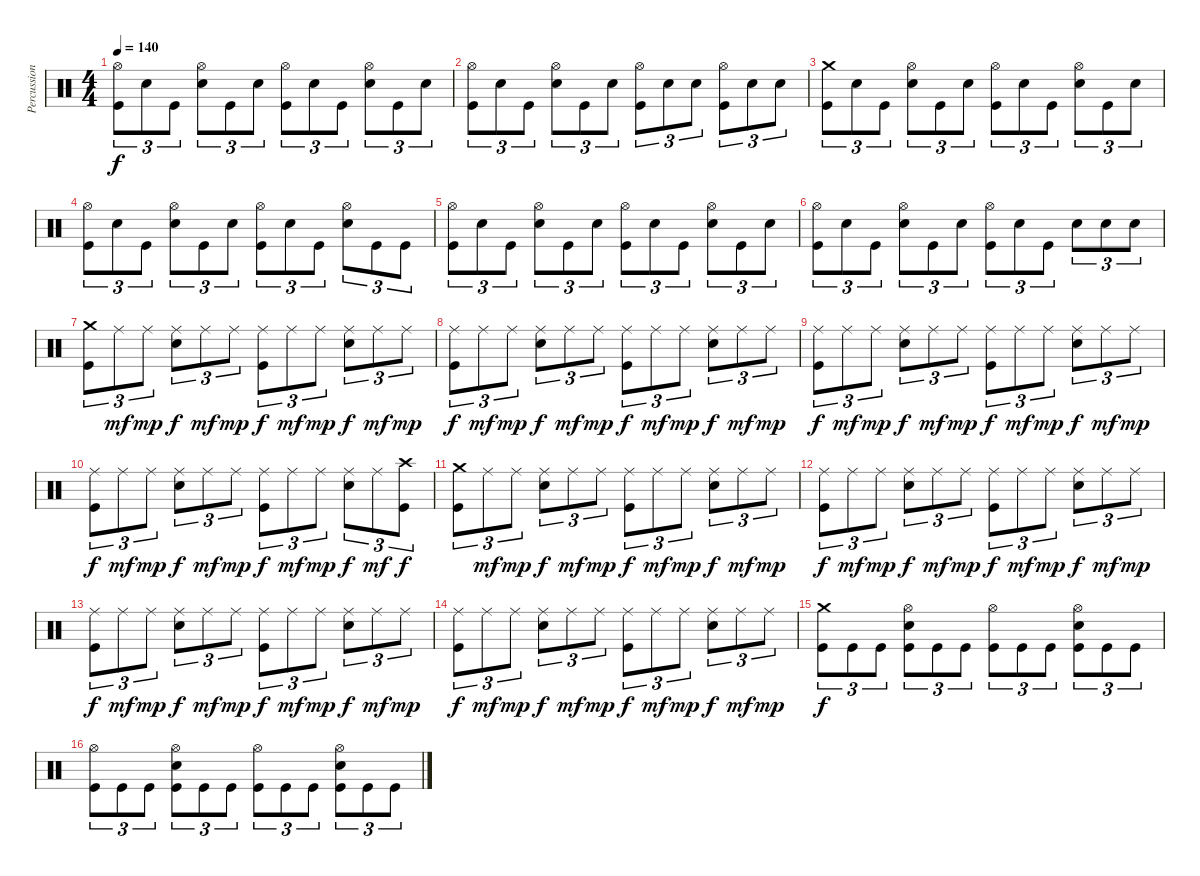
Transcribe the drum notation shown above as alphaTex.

\track ("Percussions" "Percussion") {instrument percussion}
\staff {score}
\articulation defaults
\ts (4 4)
\tempo 140
\clef neutral
\ks c
("Hi-Hat (open)" "Kick (hit)").8{tu (3 2) dy f} "Snare (hit)".8{tu (3 2)} "Kick (hit)".8{tu (3 2)} ("Hi-Hat (open)" "Electric Snare (hit)").8{tu (3 2)} "Kick (hit)".8{tu (3 2)} "Snare (hit)".8{tu (3 2)} ("Hi-Hat (open)" "Kick (hit)").8{tu (3 2)} "Snare (hit)".8{tu (3 2)} "Kick (hit)".8{tu (3 2)} ("Hi-Hat (open)" "Electric Snare (hit)").8{tu (3 2)} "Kick (hit)".8{tu (3 2)} "Snare (hit)".8{tu (3 2)} |
("Hi-Hat (open)" "Kick (hit)").8{tu (3 2)} "Snare (hit)".8{tu (3 2)} "Kick (hit)".8{tu (3 2)} ("Hi-Hat (open)" "Electric Snare (hit)").8{tu (3 2)} "Kick (hit)".8{tu (3 2)} "Snare (hit)".8{tu (3 2)} ("Hi-Hat (open)" "Kick (hit)").8{tu (3 2)} "Electric Snare (hit)".8{tu (3 2)} "Electric Snare (hit)".8{tu (3 2)} ("Hi-Hat (open)" "Kick (hit)").8{tu (3 2)} "Electric Snare (hit)".8{tu (3 2)} "Electric Snare (hit)".8{tu (3 2)} |
("Crash medium (hit)" "Kick (hit)").8{tu (3 2)} "Snare (hit)".8{tu (3 2)} "Kick (hit)".8{tu (3 2)} ("Hi-Hat (open)" "Electric Snare (hit)").8{tu (3 2)} "Kick (hit)".8{tu (3 2)} "Snare (hit)".8{tu (3 2)} ("Hi-Hat (open)" "Kick (hit)").8{tu (3 2)} "Snare (hit)".8{tu (3 2)} "Kick (hit)".8{tu (3 2)} ("Hi-Hat (open)" "Electric Snare (hit)").8{tu (3 2)} "Kick (hit)".8{tu (3 2)} "Snare (hit)".8{tu (3 2)} |
("Hi-Hat (open)" "Kick (hit)").8{tu (3 2)} "Snare (hit)".8{tu (3 2)} "Kick (hit)".8{tu (3 2)} ("Hi-Hat (open)" "Electric Snare (hit)").8{tu (3 2)} "Kick (hit)".8{tu (3 2)} "Snare (hit)".8{tu (3 2)} ("Hi-Hat (open)" "Kick (hit)").8{tu (3 2)} "Snare (hit)".8{tu (3 2)} "Kick (hit)".8{tu (3 2)} ("Hi-Hat (open)" "Electric Snare (hit)").8{tu (3 2)} "Kick (hit)".8{tu (3 2)} "Kick (hit)".8{tu (3 2)} |
("Hi-Hat (open)" "Kick (hit)").8{tu (3 2)} "Snare (hit)".8{tu (3 2)} "Kick (hit)".8{tu (3 2)} ("Hi-Hat (open)" "Electric Snare (hit)").8{tu (3 2)} "Kick (hit)".8{tu (3 2)} "Snare (hit)".8{tu (3 2)} ("Hi-Hat (open)" "Kick (hit)").8{tu (3 2)} "Snare (hit)".8{tu (3 2)} "Kick (hit)".8{tu (3 2)} ("Hi-Hat (open)" "Electric Snare (hit)").8{tu (3 2)} "Kick (hit)".8{tu (3 2)} "Snare (hit)".8{tu (3 2)} |
("Hi-Hat (open)" "Kick (hit)").8{tu (3 2)} "Snare (hit)".8{tu (3 2)} "Kick (hit)".8{tu (3 2)} ("Hi-Hat (open)" "Electric Snare (hit)").8{tu (3 2)} "Kick (hit)".8{tu (3 2)} "Snare (hit)".8{tu (3 2)} ("Hi-Hat (open)" "Kick (hit)").8{tu (3 2)} "Snare (hit)".8{tu (3 2)} "Kick (hit)".8{tu (3 2)} "Electric Snare (hit)".8{tu (3 2)} "Electric Snare (hit)".8{tu (3 2)} "Electric Snare (hit)".8{tu (3 2)} |
("Crash medium (hit)" "Kick (hit)").8{tu (3 2)} "Ride (middle)".8{tu (3 2) dy mf} "Ride (middle)".8{tu (3 2) dy mp} ("Ride (middle)" "Electric Snare (hit)").8{tu (3 2) dy f} "Ride (middle)".8{tu (3 2) dy mf} "Ride (middle)".8{tu (3 2) dy mp} ("Ride (middle)" "Kick (hit)").8{tu (3 2) dy f} "Ride (middle)".8{tu (3 2) dy mf} "Ride (middle)".8{tu (3 2) dy mp} ("Ride (middle)" "Electric Snare (hit)").8{tu (3 2) dy f} "Ride (middle)".8{tu (3 2) dy mf} "Ride (middle)".8{tu (3 2) dy mp} |
("Ride (middle)" "Kick (hit)").8{tu (3 2) dy f} "Ride (middle)".8{tu (3 2) dy mf} "Ride (middle)".8{tu (3 2) dy mp} ("Ride (middle)" "Electric Snare (hit)").8{tu (3 2) dy f} "Ride (middle)".8{tu (3 2) dy mf} "Ride (middle)".8{tu (3 2) dy mp} ("Ride (middle)" "Kick (hit)").8{tu (3 2) dy f} "Ride (middle)".8{tu (3 2) dy mf} "Ride (middle)".8{tu (3 2) dy mp} ("Ride (middle)" "Electric Snare (hit)").8{tu (3 2) dy f} "Ride (middle)".8{tu (3 2) dy mf} "Ride (middle)".8{tu (3 2) dy mp} |
("Ride (middle)" "Kick (hit)").8{tu (3 2) dy f} "Ride (middle)".8{tu (3 2) dy mf} "Ride (middle)".8{tu (3 2) dy mp} ("Ride (middle)" "Electric Snare (hit)").8{tu (3 2) dy f} "Ride (middle)".8{tu (3 2) dy mf} "Ride (middle)".8{tu (3 2) dy mp} ("Ride (middle)" "Kick (hit)").8{tu (3 2) dy f} "Ride (middle)".8{tu (3 2) dy mf} "Ride (middle)".8{tu (3 2) dy mp} ("Ride (middle)" "Electric Snare (hit)").8{tu (3 2) dy f} "Ride (middle)".8{tu (3 2) dy mf} "Ride (middle)".8{tu (3 2) dy mp} |
("Ride (middle)" "Kick (hit)").8{tu (3 2) dy f} "Ride (middle)".8{tu (3 2) dy mf} "Ride (middle)".8{tu (3 2) dy mp} ("Ride (middle)" "Electric Snare (hit)").8{tu (3 2) dy f} "Ride (middle)".8{tu (3 2) dy mf} "Ride (middle)".8{tu (3 2) dy mp} ("Ride (middle)" "Kick (hit)").8{tu (3 2) dy f} "Ride (middle)".8{tu (3 2) dy mf} "Ride (middle)".8{tu (3 2) dy mp} ("Ride (middle)" "Electric Snare (hit)").8{tu (3 2) dy f} "Ride (middle)".8{tu (3 2) dy mf} ("Crash high (hit)" "Kick (hit)").8{tu (3 2) dy f} |
("Crash medium (hit)" "Kick (hit)").8{tu (3 2)} "Ride (middle)".8{tu (3 2) dy mf} "Ride (middle)".8{tu (3 2) dy mp} ("Ride (middle)" "Electric Snare (hit)").8{tu (3 2) dy f} "Ride (middle)".8{tu (3 2) dy mf} "Ride (middle)".8{tu (3 2) dy mp} ("Ride (middle)" "Kick (hit)").8{tu (3 2) dy f} "Ride (middle)".8{tu (3 2) dy mf} "Ride (middle)".8{tu (3 2) dy mp} ("Ride (middle)" "Electric Snare (hit)").8{tu (3 2) dy f} "Ride (middle)".8{tu (3 2) dy mf} "Ride (middle)".8{tu (3 2) dy mp} |
("Ride (middle)" "Kick (hit)").8{tu (3 2) dy f} "Ride (middle)".8{tu (3 2) dy mf} "Ride (middle)".8{tu (3 2) dy mp} ("Ride (middle)" "Electric Snare (hit)").8{tu (3 2) dy f} "Ride (middle)".8{tu (3 2) dy mf} "Ride (middle)".8{tu (3 2) dy mp} ("Ride (middle)" "Kick (hit)").8{tu (3 2) dy f} "Ride (middle)".8{tu (3 2) dy mf} "Ride (middle)".8{tu (3 2) dy mp} ("Ride (middle)" "Electric Snare (hit)").8{tu (3 2) dy f} "Ride (middle)".8{tu (3 2) dy mf} "Ride (middle)".8{tu (3 2) dy mp} |
("Ride (middle)" "Kick (hit)").8{tu (3 2) dy f} "Ride (middle)".8{tu (3 2) dy mf} "Ride (middle)".8{tu (3 2) dy mp} ("Ride (middle)" "Electric Snare (hit)").8{tu (3 2) dy f} "Ride (middle)".8{tu (3 2) dy mf} "Ride (middle)".8{tu (3 2) dy mp} ("Ride (middle)" "Kick (hit)").8{tu (3 2) dy f} "Ride (middle)".8{tu (3 2) dy mf} "Ride (middle)".8{tu (3 2) dy mp} ("Ride (middle)" "Electric Snare (hit)").8{tu (3 2) dy f} "Ride (middle)".8{tu (3 2) dy mf} "Ride (middle)".8{tu (3 2) dy mp} |
("Ride (middle)" "Kick (hit)").8{tu (3 2) dy f} "Ride (middle)".8{tu (3 2) dy mf} "Ride (middle)".8{tu (3 2) dy mp} ("Ride (middle)" "Electric Snare (hit)").8{tu (3 2) dy f} "Ride (middle)".8{tu (3 2) dy mf} "Ride (middle)".8{tu (3 2) dy mp} ("Ride (middle)" "Kick (hit)").8{tu (3 2) dy f} "Ride (middle)".8{tu (3 2) dy mf} "Ride (middle)".8{tu (3 2) dy mp} ("Ride (middle)" "Electric Snare (hit)").8{tu (3 2) dy f} "Ride (middle)".8{tu (3 2) dy mf} "Ride (middle)".8{tu (3 2) dy mp} |
("Crash medium (hit)" "Kick (hit)").8{tu (3 2) dy f} "Kick (hit)".8{tu (3 2)} "Kick (hit)".8{tu (3 2)} ("Hi-Hat (open)" "Electric Snare (hit)" "Kick (hit)").8{tu (3 2)} "Kick (hit)".8{tu (3 2)} "Kick (hit)".8{tu (3 2)} ("Hi-Hat (open)" "Kick (hit)").8{tu (3 2)} "Kick (hit)".8{tu (3 2)} "Kick (hit)".8{tu (3 2)} ("Hi-Hat (open)" "Electric Snare (hit)" "Kick (hit)").8{tu (3 2)} "Kick (hit)".8{tu (3 2)} "Kick (hit)".8{tu (3 2)} |
("Hi-Hat (open)" "Kick (hit)").8{tu (3 2)} "Kick (hit)".8{tu (3 2)} "Kick (hit)".8{tu (3 2)} ("Hi-Hat (open)" "Electric Snare (hit)" "Kick (hit)").8{tu (3 2)} "Kick (hit)".8{tu (3 2)} "Kick (hit)".8{tu (3 2)} ("Hi-Hat (open)" "Kick (hit)").8{tu (3 2)} "Kick (hit)".8{tu (3 2)} "Kick (hit)".8{tu (3 2)} ("Hi-Hat (open)" "Electric Snare (hit)" "Kick (hit)").8{tu (3 2)} "Kick (hit)".8{tu (3 2)} "Kick (hit)".8{tu (3 2)}
